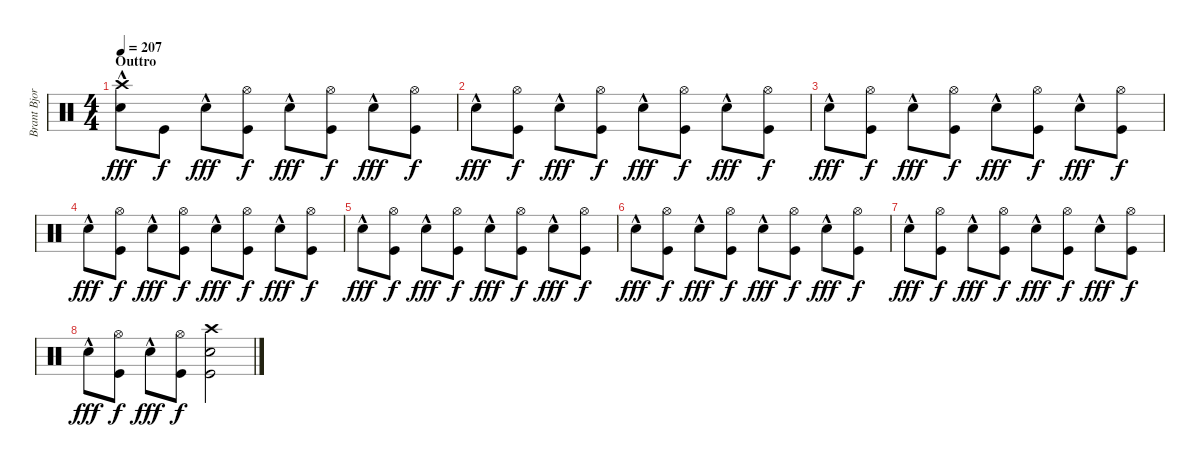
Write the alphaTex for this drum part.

\track ("Brant Bjork - Drums" "Brant Bjor") {instrument percussion}
\staff {score}
\articulation defaults
\ts (4 4)
\section ("" "Outtro")
\tempo 207
\clef neutral
\ks c
("Crash high (hit)" "Snare (hit) 2"{hac}).8{dy fff} "Kick (hit)".8{dy f} "Snare (hit) 2"{hac}.8{dy fff} ("Hi-Hat (open)" "Kick (hit)").8{dy f} "Snare (hit) 2"{hac}.8{dy fff} ("Hi-Hat (open)" "Kick (hit)").8{dy f} "Snare (hit) 2"{hac}.8{dy fff} ("Hi-Hat (open)" "Kick (hit)").8{dy f} |
"Snare (hit) 2"{hac}.8{dy fff} ("Hi-Hat (open)" "Kick (hit)").8{dy f} "Snare (hit) 2"{hac}.8{dy fff} ("Hi-Hat (open)" "Kick (hit)").8{dy f} "Snare (hit) 2"{hac}.8{dy fff} ("Hi-Hat (open)" "Kick (hit)").8{dy f} "Snare (hit) 2"{hac}.8{dy fff} ("Hi-Hat (open)" "Kick (hit)").8{dy f} |
"Snare (hit) 2"{hac}.8{dy fff} ("Hi-Hat (open)" "Kick (hit)").8{dy f} "Snare (hit) 2"{hac}.8{dy fff} ("Hi-Hat (open)" "Kick (hit)").8{dy f} "Snare (hit) 2"{hac}.8{dy fff} ("Hi-Hat (open)" "Kick (hit)").8{dy f} "Snare (hit) 2"{hac}.8{dy fff} ("Hi-Hat (open)" "Kick (hit)").8{dy f} |
"Snare (hit) 2"{hac}.8{dy fff} ("Hi-Hat (open)" "Kick (hit)").8{dy f} "Snare (hit) 2"{hac}.8{dy fff} ("Hi-Hat (open)" "Kick (hit)").8{dy f} "Snare (hit) 2"{hac}.8{dy fff} ("Hi-Hat (open)" "Kick (hit)").8{dy f} "Snare (hit) 2"{hac}.8{dy fff} ("Hi-Hat (open)" "Kick (hit)").8{dy f} |
"Snare (hit) 2"{hac}.8{dy fff} ("Hi-Hat (open)" "Kick (hit)").8{dy f} "Snare (hit) 2"{hac}.8{dy fff} ("Hi-Hat (open)" "Kick (hit)").8{dy f} "Snare (hit) 2"{hac}.8{dy fff} ("Hi-Hat (open)" "Kick (hit)").8{dy f} "Snare (hit) 2"{hac}.8{dy fff} ("Hi-Hat (open)" "Kick (hit)").8{dy f} |
"Snare (hit) 2"{hac}.8{dy fff} ("Hi-Hat (open)" "Kick (hit)").8{dy f} "Snare (hit) 2"{hac}.8{dy fff} ("Hi-Hat (open)" "Kick (hit)").8{dy f} "Snare (hit) 2"{hac}.8{dy fff} ("Hi-Hat (open)" "Kick (hit)").8{dy f} "Snare (hit) 2"{hac}.8{dy fff} ("Hi-Hat (open)" "Kick (hit)").8{dy f} |
"Snare (hit) 2"{hac}.8{dy fff} ("Hi-Hat (open)" "Kick (hit)").8{dy f} "Snare (hit) 2"{hac}.8{dy fff} ("Hi-Hat (open)" "Kick (hit)").8{dy f} "Snare (hit) 2"{hac}.8{dy fff} ("Hi-Hat (open)" "Kick (hit)").8{dy f} "Snare (hit) 2"{hac}.8{dy fff} ("Hi-Hat (open)" "Kick (hit)").8{dy f} |
"Snare (hit) 2"{hac}.8{dy fff} ("Hi-Hat (open)" "Kick (hit)").8{dy f} "Snare (hit) 2"{hac}.8{dy fff} ("Hi-Hat (open)" "Kick (hit)").8{dy f} ("Crash high (hit)" "Snare (hit) 2" "Kick (hit)").2
